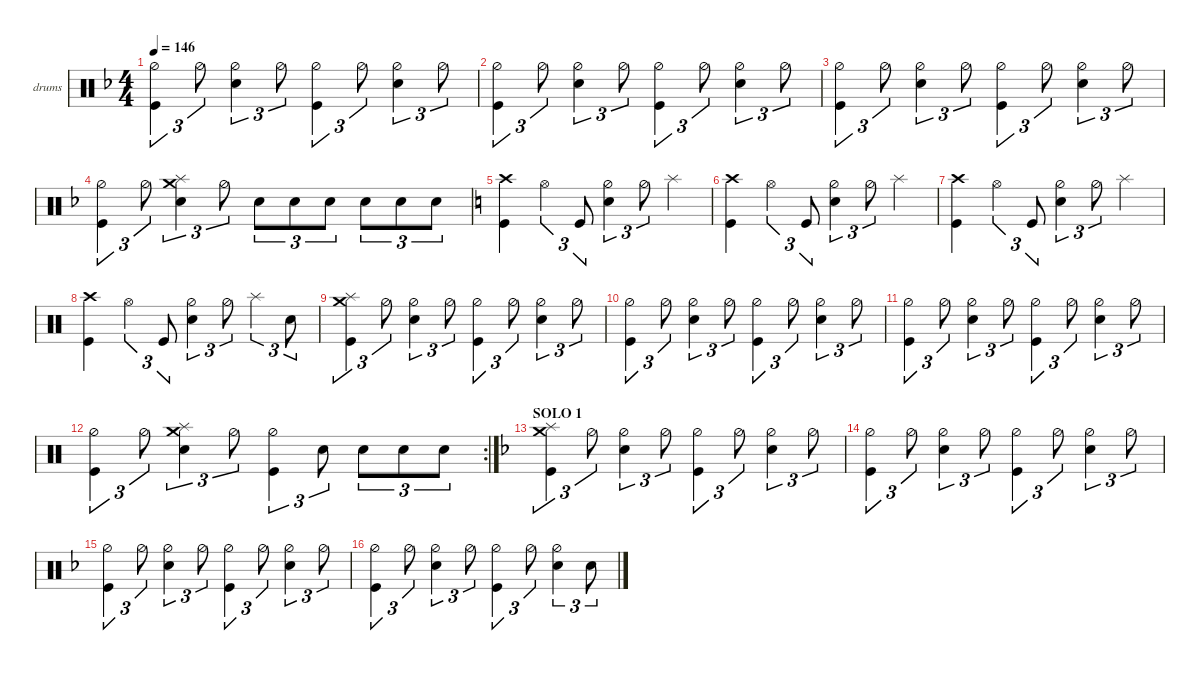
\defaultSystemsLayout 4
\hideDynamics
\bracketExtendMode nobrackets
\firstSystemTrackNameOrientation horizontal
\otherSystemsTrackNameOrientation horizontal
\track ("drums" "drums") {instrument percussion}
\staff {score}
\articulation defaults
\ts (4 4)
\tempo 146
\clef neutral
\scale
1.06392
\ks f
("Kick (hit)" "Hi-Hat (half)").4{tu (3 2) dy mf} "Hi-Hat (half)".8{tu (3 2)} ("Hi-Hat (half)" "Snare (hit) 2").4{tu (3 2)} "Hi-Hat (half)".8{tu (3 2)} ("Kick (hit)" "Hi-Hat (half)").4{tu (3 2)} "Hi-Hat (half)".8{tu (3 2)} ("Hi-Hat (half)" "Snare (hit) 2").4{tu (3 2)} "Hi-Hat (half)".8{tu (3 2)} |
\scale
0.978695 ("Kick (hit)" "Hi-Hat (half)").4{tu (3 2)} "Hi-Hat (half)".8{tu (3 2)} ("Hi-Hat (half)" "Snare (hit) 2").4{tu (3 2)} "Hi-Hat (half)".8{tu (3 2)} ("Kick (hit)" "Hi-Hat (half)").4{tu (3 2)} "Hi-Hat (half)".8{tu (3 2)} ("Hi-Hat (half)" "Snare (hit) 2").4{tu (3 2)} "Hi-Hat (half)".8{tu (3 2)} |
\scale
0.978695 ("Kick (hit)" "Hi-Hat (half)").4{tu (3 2)} "Hi-Hat (half)".8{tu (3 2)} ("Hi-Hat (half)" "Snare (hit) 2").4{tu (3 2)} "Hi-Hat (half)".8{tu (3 2)} ("Kick (hit)" "Hi-Hat (half)").4{tu (3 2)} "Hi-Hat (half)".8{tu (3 2)} ("Hi-Hat (half)" "Snare (hit) 2").4{tu (3 2)} "Hi-Hat (half)".8{tu (3 2)} |
\scale
0.978695 ("Kick (hit)" "Hi-Hat (half)").4{tu (3 2)} "Hi-Hat (half)".8{tu (3 2)} ("Splash (hit)" "Crash medium (hit)" "Snare (hit) 2").4{tu (3 2)} "Hi-Hat (half)".8{tu (3 2)} "Snare (hit) 2".8{tu (3 2)} "Snare (hit) 2".8{tu (3 2)} "Snare (hit) 2".8{tu (3 2)} "Snare (hit) 2".8{tu (3 2)} "Snare (hit) 2".8{tu (3 2)} "Snare (hit) 2".8{tu (3 2)} |
\scale
1.06392
\ks c
("Kick (hit)" "Crash high (hit)").4 "Hi-Hat (open)".4{tu (3 2)} "Kick (hit)".8{tu (3 2)} ("Hi-Hat (half)" "Snare (hit) 2").4{tu (3 2)} "Hi-Hat (half)".8{tu (3 2)} "Splash (hit)".4{dy p} |
\scale
0.978695 ("Kick (hit)" "Crash high (hit)").4{dy mf} "Hi-Hat (open)".4{tu (3 2)} "Kick (hit)".8{tu (3 2)} ("Hi-Hat (half)" "Snare (hit) 2").4{tu (3 2)} "Hi-Hat (half)".8{tu (3 2)} "Splash (hit)".4{dy p} |
\scale
0.978695 ("Kick (hit)" "Crash high (hit)").4{dy mf} "Hi-Hat (open)".4{tu (3 2)} "Kick (hit)".8{tu (3 2)} ("Hi-Hat (half)" "Snare (hit) 2").4{tu (3 2)} "Hi-Hat (half)".8{tu (3 2)} "Splash (hit)".4{dy p} |
\scale
0.978695 ("Kick (hit)" "Crash high (hit)").4{dy f} "Hi-Hat (open)".4{tu (3 2) dy mf} "Kick (hit)".8{tu (3 2)} ("Hi-Hat (half)" "Snare (hit) 2").4{tu (3 2)} "Hi-Hat (half)".8{tu (3 2)} "Splash (hit)".4{tu (3 2)} "Snare (hit) 2".8{tu (3 2)} |
\scale
1.05236 ("Kick (hit)" "Splash (hit)" "Crash medium (hit)").4{tu (3 2)} "Hi-Hat (half)".8{tu (3 2)} ("Hi-Hat (half)" "Snare (hit) 2").4{tu (3 2)} "Hi-Hat (half)".8{tu (3 2)} ("Kick (hit)" "Hi-Hat (half)").4{tu (3 2)} "Hi-Hat (half)".8{tu (3 2)} ("Hi-Hat (half)" "Snare (hit) 2").4{tu (3 2)} "Hi-Hat (half)".8{tu (3 2)} |
\scale
0.967137 ("Kick (hit)" "Hi-Hat (half)").4{tu (3 2)} "Hi-Hat (half)".8{tu (3 2)} ("Hi-Hat (half)" "Snare (hit) 2").4{tu (3 2)} "Hi-Hat (half)".8{tu (3 2)} ("Kick (hit)" "Hi-Hat (half)").4{tu (3 2)} "Hi-Hat (half)".8{tu (3 2)} ("Hi-Hat (half)" "Snare (hit) 2").4{tu (3 2)} "Hi-Hat (half)".8{tu (3 2)} |
\scale
0.967137 ("Kick (hit)" "Hi-Hat (half)").4{tu (3 2)} "Hi-Hat (half)".8{tu (3 2)} ("Hi-Hat (half)" "Snare (hit) 2").4{tu (3 2)} "Hi-Hat (half)".8{tu (3 2)} ("Kick (hit)" "Hi-Hat (half)").4{tu (3 2)} "Hi-Hat (half)".8{tu (3 2)} ("Hi-Hat (half)" "Snare (hit) 2").4{tu (3 2)} "Hi-Hat (half)".8{tu (3 2)} |
\rc 2
\scale
1.01337 ("Kick (hit)" "Hi-Hat (half)").4{tu (3 2)} "Hi-Hat (half)".8{tu (3 2)} ("Splash (hit)" "Crash medium (hit)" "Snare (hit) 2").4{tu (3 2)} "Hi-Hat (half)".8{tu (3 2)} ("Kick (hit)" "Hi-Hat (half)").4{tu (3 2)} "Snare (hit) 2".8{tu (3 2)} "Snare (hit) 2".8{tu (3 2)} "Snare (hit) 2".8{tu (3 2)} "Snare (hit) 2".8{tu (3 2)} |
\section ("" "SOLO 1")
\scale
1.06392
\ks f
("Kick (hit)" "Splash (hit)" "Crash medium (hit)").4{tu (3 2)} "Hi-Hat (half)".8{tu (3 2)} ("Hi-Hat (half)" "Snare (hit) 2").4{tu (3 2)} "Hi-Hat (half)".8{tu (3 2)} ("Kick (hit)" "Hi-Hat (half)").4{tu (3 2)} "Hi-Hat (half)".8{tu (3 2)} ("Hi-Hat (half)" "Snare (hit) 2").4{tu (3 2)} "Hi-Hat (half)".8{tu (3 2)} |
\scale
0.978695 ("Kick (hit)" "Hi-Hat (half)").4{tu (3 2)} "Hi-Hat (half)".8{tu (3 2)} ("Hi-Hat (half)" "Snare (hit) 2").4{tu (3 2)} "Hi-Hat (half)".8{tu (3 2)} ("Kick (hit)" "Hi-Hat (half)").4{tu (3 2)} "Hi-Hat (half)".8{tu (3 2)} ("Hi-Hat (half)" "Snare (hit) 2").4{tu (3 2)} "Hi-Hat (half)".8{tu (3 2)} |
\scale
0.978695 ("Kick (hit)" "Hi-Hat (half)").4{tu (3 2)} "Hi-Hat (half)".8{tu (3 2)} ("Hi-Hat (half)" "Snare (hit) 2").4{tu (3 2)} "Hi-Hat (half)".8{tu (3 2)} ("Kick (hit)" "Hi-Hat (half)").4{tu (3 2)} "Hi-Hat (half)".8{tu (3 2)} ("Hi-Hat (half)" "Snare (hit) 2").4{tu (3 2)} "Hi-Hat (half)".8{tu (3 2)} |
\scale
0.978695 ("Kick (hit)" "Hi-Hat (half)").4{tu (3 2)} "Hi-Hat (half)".8{tu (3 2)} ("Hi-Hat (half)" "Snare (hit) 2").4{tu (3 2)} "Hi-Hat (half)".8{tu (3 2)} ("Kick (hit)" "Hi-Hat (half)").4{tu (3 2)} "Hi-Hat (half)".8{tu (3 2)} ("Hi-Hat (half)" "Snare (hit) 2").4{tu (3 2)} "Snare (hit) 2".8{tu (3 2)}
